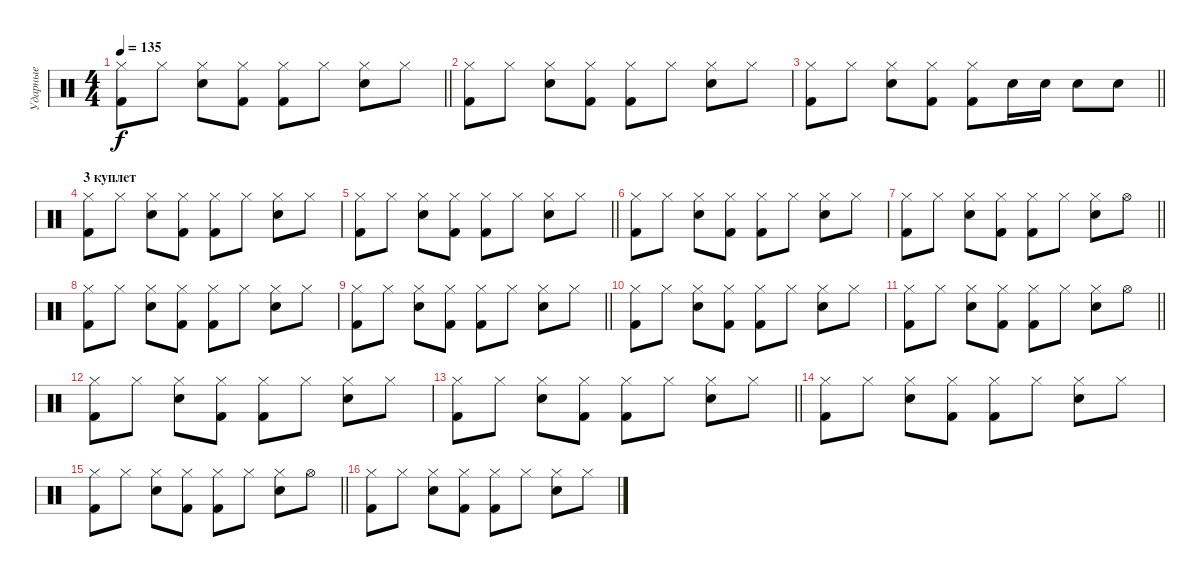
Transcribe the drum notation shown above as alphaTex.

\track ("Ударные" "Ударные") {instrument percussion}
\staff {score}
\articulation defaults
\ts (4 4)
\tempo 135
\clef neutral
\barLineRight lightlight
\ks c
("Hi-Hat (closed)" "Kick (hit) 2").8{dy f} "Hi-Hat (closed)".8 ("Hi-Hat (closed)" "Snare (hit) 2").8 ("Hi-Hat (closed)" "Kick (hit) 2").8 ("Hi-Hat (closed)" "Kick (hit) 2").8 "Hi-Hat (closed)".8 ("Hi-Hat (closed)" "Snare (hit) 2").8 "Hi-Hat (closed)".8 |
("Hi-Hat (closed)" "Kick (hit) 2").8 "Hi-Hat (closed)".8 ("Hi-Hat (closed)" "Snare (hit) 2").8 ("Hi-Hat (closed)" "Kick (hit) 2").8 ("Hi-Hat (closed)" "Kick (hit) 2").8 "Hi-Hat (closed)".8 ("Hi-Hat (closed)" "Snare (hit) 2").8 "Hi-Hat (closed)".8 |
\barLineRight lightlight
("Hi-Hat (closed)" "Kick (hit) 2").8 "Hi-Hat (closed)".8 ("Hi-Hat (closed)" "Snare (hit) 2").8 ("Hi-Hat (closed)" "Kick (hit) 2").8 ("Hi-Hat (closed)" "Kick (hit) 2").8 "Snare (hit) 2".16 "Snare (hit) 2".16 "Snare (hit) 2".8 "Snare (hit) 2".8 |
\section ("" "3 куплет")
("Hi-Hat (closed)" "Kick (hit) 2").8 "Hi-Hat (closed)".8 ("Hi-Hat (closed)" "Snare (hit) 2").8 ("Hi-Hat (closed)" "Kick (hit) 2").8 ("Hi-Hat (closed)" "Kick (hit) 2").8 "Hi-Hat (closed)".8 ("Hi-Hat (closed)" "Snare (hit) 2").8 "Hi-Hat (closed)".8 |
\barLineRight lightlight
("Hi-Hat (closed)" "Kick (hit) 2").8 "Hi-Hat (closed)".8 ("Hi-Hat (closed)" "Snare (hit) 2").8 ("Hi-Hat (closed)" "Kick (hit) 2").8 ("Hi-Hat (closed)" "Kick (hit) 2").8 "Hi-Hat (closed)".8 ("Hi-Hat (closed)" "Snare (hit) 2").8 "Hi-Hat (closed)".8 |
("Hi-Hat (closed)" "Kick (hit) 2").8 "Hi-Hat (closed)".8 ("Hi-Hat (closed)" "Snare (hit) 2").8 ("Hi-Hat (closed)" "Kick (hit) 2").8 ("Hi-Hat (closed)" "Kick (hit) 2").8 "Hi-Hat (closed)".8 ("Hi-Hat (closed)" "Snare (hit) 2").8 "Hi-Hat (closed)".8 |
\barLineRight lightlight
("Hi-Hat (closed)" "Kick (hit) 2").8 "Hi-Hat (closed)".8 ("Hi-Hat (closed)" "Snare (hit) 2").8 ("Hi-Hat (closed)" "Kick (hit) 2").8 ("Hi-Hat (closed)" "Kick (hit) 2").8 "Hi-Hat (closed)".8 ("Hi-Hat (closed)" "Snare (hit) 2").8 "Hi-Hat (open)".8 |
("Hi-Hat (closed)" "Kick (hit) 2").8 "Hi-Hat (closed)".8 ("Hi-Hat (closed)" "Snare (hit) 2").8 ("Hi-Hat (closed)" "Kick (hit) 2").8 ("Hi-Hat (closed)" "Kick (hit) 2").8 "Hi-Hat (closed)".8 ("Hi-Hat (closed)" "Snare (hit) 2").8 "Hi-Hat (closed)".8 |
\barLineRight lightlight
("Hi-Hat (closed)" "Kick (hit) 2").8 "Hi-Hat (closed)".8 ("Hi-Hat (closed)" "Snare (hit) 2").8 ("Hi-Hat (closed)" "Kick (hit) 2").8 ("Hi-Hat (closed)" "Kick (hit) 2").8 "Hi-Hat (closed)".8 ("Hi-Hat (closed)" "Snare (hit) 2").8 "Hi-Hat (closed)".8 |
("Hi-Hat (closed)" "Kick (hit) 2").8 "Hi-Hat (closed)".8 ("Hi-Hat (closed)" "Snare (hit) 2").8 ("Hi-Hat (closed)" "Kick (hit) 2").8 ("Hi-Hat (closed)" "Kick (hit) 2").8 "Hi-Hat (closed)".8 ("Hi-Hat (closed)" "Snare (hit) 2").8 "Hi-Hat (closed)".8 |
\barLineRight lightlight
("Hi-Hat (closed)" "Kick (hit) 2").8 "Hi-Hat (closed)".8 ("Hi-Hat (closed)" "Snare (hit) 2").8 ("Hi-Hat (closed)" "Kick (hit) 2").8 ("Hi-Hat (closed)" "Kick (hit) 2").8 "Hi-Hat (closed)".8 ("Hi-Hat (closed)" "Snare (hit) 2").8 "Hi-Hat (open)".8 |
("Hi-Hat (closed)" "Kick (hit) 2").8 "Hi-Hat (closed)".8 ("Hi-Hat (closed)" "Snare (hit) 2").8 ("Hi-Hat (closed)" "Kick (hit) 2").8 ("Hi-Hat (closed)" "Kick (hit) 2").8 "Hi-Hat (closed)".8 ("Hi-Hat (closed)" "Snare (hit) 2").8 "Hi-Hat (closed)".8 |
\barLineRight lightlight
("Hi-Hat (closed)" "Kick (hit) 2").8 "Hi-Hat (closed)".8 ("Hi-Hat (closed)" "Snare (hit) 2").8 ("Hi-Hat (closed)" "Kick (hit) 2").8 ("Hi-Hat (closed)" "Kick (hit) 2").8 "Hi-Hat (closed)".8 ("Hi-Hat (closed)" "Snare (hit) 2").8 "Hi-Hat (closed)".8 |
("Hi-Hat (closed)" "Kick (hit) 2").8 "Hi-Hat (closed)".8 ("Hi-Hat (closed)" "Snare (hit) 2").8 ("Hi-Hat (closed)" "Kick (hit) 2").8 ("Hi-Hat (closed)" "Kick (hit) 2").8 "Hi-Hat (closed)".8 ("Hi-Hat (closed)" "Snare (hit) 2").8 "Hi-Hat (closed)".8 |
\barLineRight lightlight
("Hi-Hat (closed)" "Kick (hit) 2").8 "Hi-Hat (closed)".8 ("Hi-Hat (closed)" "Snare (hit) 2").8 ("Hi-Hat (closed)" "Kick (hit) 2").8 ("Hi-Hat (closed)" "Kick (hit) 2").8 "Hi-Hat (closed)".8 ("Hi-Hat (closed)" "Snare (hit) 2").8 "Hi-Hat (open)".8 |
("Hi-Hat (closed)" "Kick (hit) 2").8 "Hi-Hat (closed)".8 ("Hi-Hat (closed)" "Snare (hit) 2").8 ("Hi-Hat (closed)" "Kick (hit) 2").8 ("Hi-Hat (closed)" "Kick (hit) 2").8 "Hi-Hat (closed)".8 ("Hi-Hat (closed)" "Snare (hit) 2").8 "Hi-Hat (closed)".8
